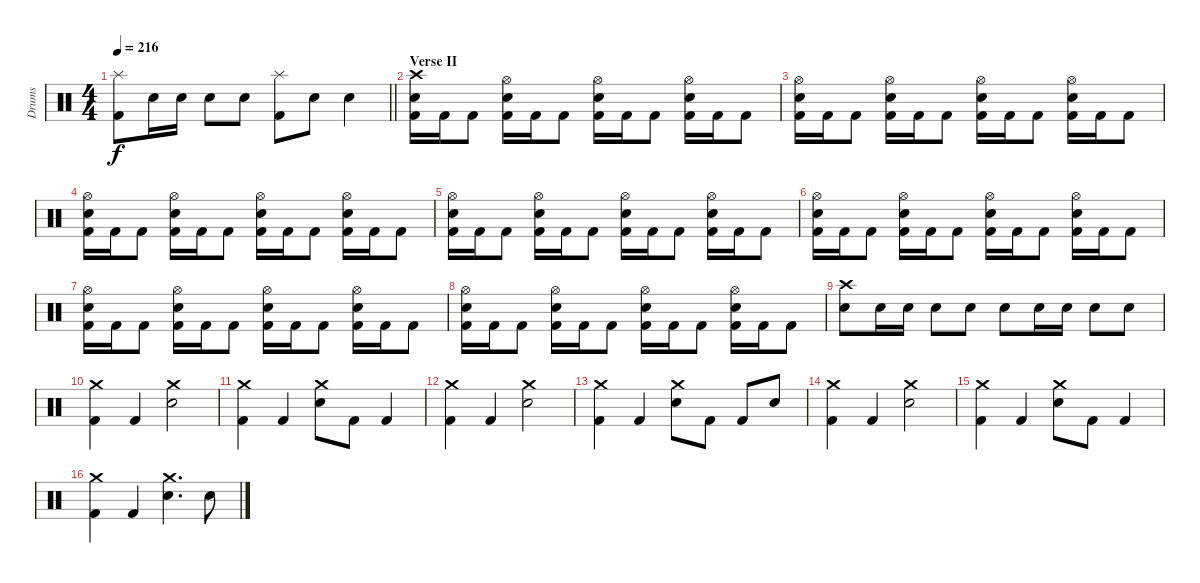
\track ("Drums" "Drums") {instrument percussion}
\staff {score}
\articulation defaults
\ts (4 4)
\tempo 216
\clef neutral
\barLineRight lightlight
\ks c
("Splash (hit)" "Kick (hit) 2").8{dy f} "Snare (hit) 2".16 "Snare (hit) 2".16 "Snare (hit) 2".8 "Snare (hit) 2".8 ("Splash (hit)" "Kick (hit) 2").8 "Snare (hit) 2".8 "Snare (hit) 2".4 |
\section ("" "Verse II")
("Crash high (hit)" "Snare (hit) 2" "Kick (hit) 2").16 "Kick (hit) 2".16 "Kick (hit) 2".8 ("Hi-Hat (open)" "Snare (hit) 2" "Kick (hit) 2").16 "Kick (hit) 2".16 "Kick (hit) 2".8 ("Hi-Hat (open)" "Snare (hit) 2" "Kick (hit) 2").16 "Kick (hit) 2".16 "Kick (hit) 2".8 ("Hi-Hat (open)" "Snare (hit) 2" "Kick (hit) 2").16 "Kick (hit) 2".16 "Kick (hit) 2".8 |
("Hi-Hat (open)" "Snare (hit) 2" "Kick (hit) 2").16 "Kick (hit) 2".16 "Kick (hit) 2".8 ("Hi-Hat (open)" "Snare (hit) 2" "Kick (hit) 2").16 "Kick (hit) 2".16 "Kick (hit) 2".8 ("Hi-Hat (open)" "Snare (hit) 2" "Kick (hit) 2").16 "Kick (hit) 2".16 "Kick (hit) 2".8 ("Hi-Hat (open)" "Snare (hit) 2" "Kick (hit) 2").16 "Kick (hit) 2".16 "Kick (hit) 2".8 |
("Hi-Hat (open)" "Snare (hit) 2" "Kick (hit) 2").16 "Kick (hit) 2".16 "Kick (hit) 2".8 ("Hi-Hat (open)" "Snare (hit) 2" "Kick (hit) 2").16 "Kick (hit) 2".16 "Kick (hit) 2".8 ("Hi-Hat (open)" "Snare (hit) 2" "Kick (hit) 2").16 "Kick (hit) 2".16 "Kick (hit) 2".8 ("Hi-Hat (open)" "Snare (hit) 2" "Kick (hit) 2").16 "Kick (hit) 2".16 "Kick (hit) 2".8 |
("Hi-Hat (open)" "Snare (hit) 2" "Kick (hit) 2").16 "Kick (hit) 2".16 "Kick (hit) 2".8 ("Hi-Hat (open)" "Snare (hit) 2" "Kick (hit) 2").16 "Kick (hit) 2".16 "Kick (hit) 2".8 ("Hi-Hat (open)" "Snare (hit) 2" "Kick (hit) 2").16 "Kick (hit) 2".16 "Kick (hit) 2".8 ("Hi-Hat (open)" "Snare (hit) 2" "Kick (hit) 2").16 "Kick (hit) 2".16 "Kick (hit) 2".8 |
("Hi-Hat (open)" "Snare (hit) 2" "Kick (hit) 2").16 "Kick (hit) 2".16 "Kick (hit) 2".8 ("Hi-Hat (open)" "Snare (hit) 2" "Kick (hit) 2").16 "Kick (hit) 2".16 "Kick (hit) 2".8 ("Hi-Hat (open)" "Snare (hit) 2" "Kick (hit) 2").16 "Kick (hit) 2".16 "Kick (hit) 2".8 ("Hi-Hat (open)" "Snare (hit) 2" "Kick (hit) 2").16 "Kick (hit) 2".16 "Kick (hit) 2".8 |
("Hi-Hat (open)" "Snare (hit) 2" "Kick (hit) 2").16 "Kick (hit) 2".16 "Kick (hit) 2".8 ("Hi-Hat (open)" "Snare (hit) 2" "Kick (hit) 2").16 "Kick (hit) 2".16 "Kick (hit) 2".8 ("Hi-Hat (open)" "Snare (hit) 2" "Kick (hit) 2").16 "Kick (hit) 2".16 "Kick (hit) 2".8 ("Hi-Hat (open)" "Snare (hit) 2" "Kick (hit) 2").16 "Kick (hit) 2".16 "Kick (hit) 2".8 |
("Hi-Hat (open)" "Snare (hit) 2" "Kick (hit) 2").16 "Kick (hit) 2".16 "Kick (hit) 2".8 ("Hi-Hat (open)" "Snare (hit) 2" "Kick (hit) 2").16 "Kick (hit) 2".16 "Kick (hit) 2".8 ("Hi-Hat (open)" "Snare (hit) 2" "Kick (hit) 2").16 "Kick (hit) 2".16 "Kick (hit) 2".8 ("Hi-Hat (open)" "Snare (hit) 2" "Kick (hit) 2").16 "Kick (hit) 2".16 "Kick (hit) 2".8 |
("Crash high (hit)" "Snare (hit) 2").8 "Snare (hit) 2".16 "Snare (hit) 2".16 "Snare (hit) 2".8 "Snare (hit) 2".8 "Snare (hit) 2".8 "Snare (hit) 2".16 "Snare (hit) 2".16 "Snare (hit) 2".8 "Snare (hit) 2".8 |
("Crash medium (hit)" "Kick (hit) 2").4 "Kick (hit) 2".4 ("Crash medium (hit)" "Snare (hit) 2").2 |
("Crash medium (hit)" "Kick (hit) 2").4 "Kick (hit) 2".4 ("Crash medium (hit)" "Snare (hit) 2").8 "Kick (hit) 2".8 "Kick (hit) 2".4 |
("Crash medium (hit)" "Kick (hit) 2").4 "Kick (hit) 2".4 ("Crash medium (hit)" "Snare (hit) 2").2 |
("Crash medium (hit)" "Kick (hit) 2").4 "Kick (hit) 2".4 ("Crash medium (hit)" "Snare (hit) 2").8 "Kick (hit) 2".8 "Kick (hit) 2".8 "Snare (hit) 2".8 |
("Crash medium (hit)" "Kick (hit) 2").4 "Kick (hit) 2".4 ("Crash medium (hit)" "Snare (hit) 2").2 |
("Crash medium (hit)" "Kick (hit) 2").4 "Kick (hit) 2".4 ("Crash medium (hit)" "Snare (hit) 2").8 "Kick (hit) 2".8 "Kick (hit) 2".4 |
("Crash medium (hit)" "Kick (hit) 2").4 "Kick (hit) 2".4 ("Crash medium (hit)" "Snare (hit) 2").4{d} "Snare (hit) 2".8
